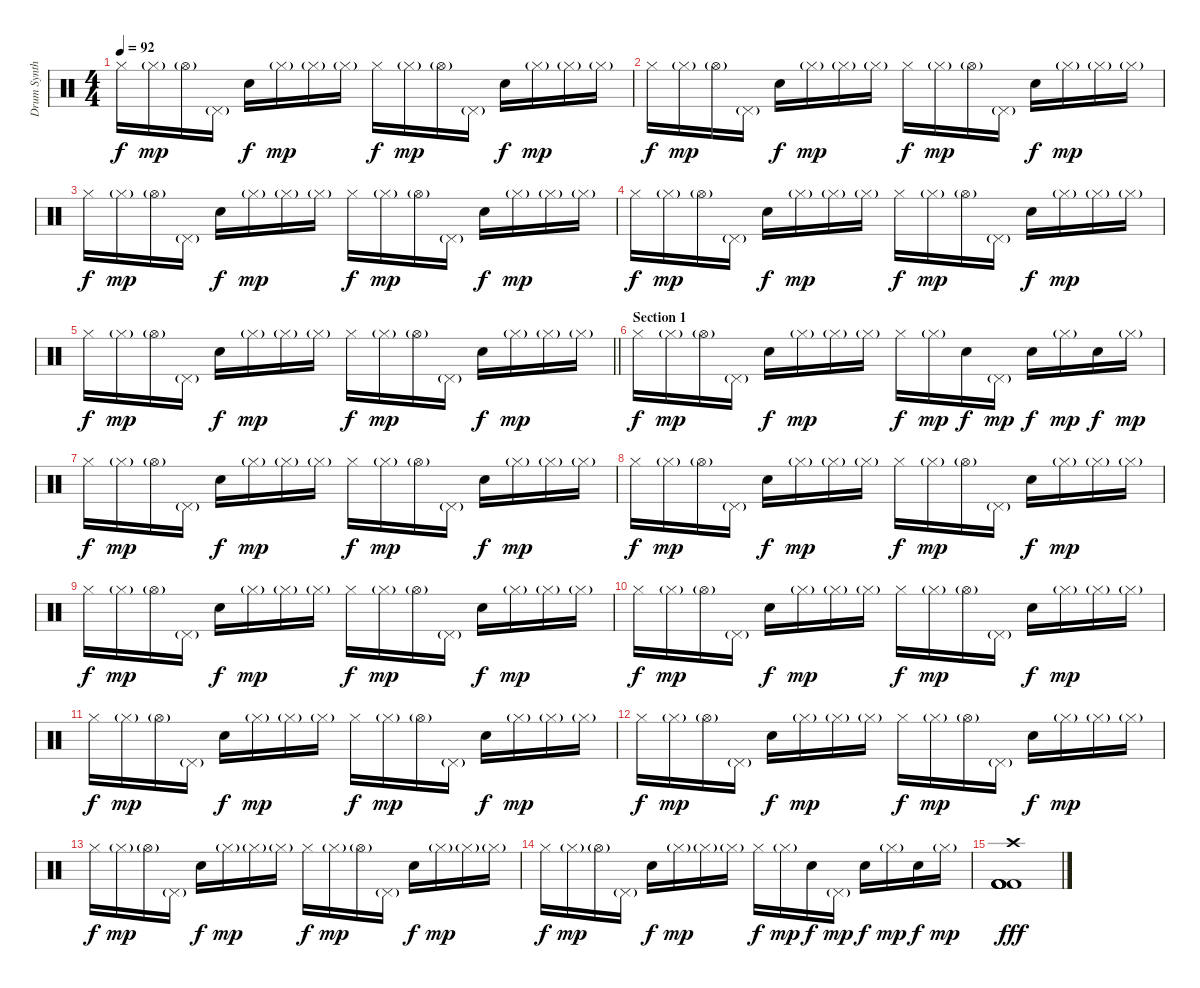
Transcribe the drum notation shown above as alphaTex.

\track ("Drum Synth" "Drum Synth") {instrument percussion}
\staff {score}
\articulation defaults
\ts (4 4)
\tempo 92
\clef neutral
\ks c "Hi-Hat (closed)".16{dy f} "Hi-Hat (closed)"{g}.16{dy mp} "Hi-Hat (open)"{g}.16 "Pedal Hi-Hat (hit)"{g}.16 "Electric Snare (hit)".16{dy f} "Hi-Hat (closed)"{g}.16{dy mp} "Hi-Hat (closed)"{g}.16 "Hi-Hat (closed)"{g}.16 "Hi-Hat (closed)".16{dy f} "Hi-Hat (closed)"{g}.16{dy mp} "Hi-Hat (open)"{g}.16 "Pedal Hi-Hat (hit)"{g}.16 "Electric Snare (hit)".16{dy f} "Hi-Hat (closed)"{g}.16{dy mp} "Hi-Hat (closed)"{g}.16 "Hi-Hat (closed)"{g}.16
|
"Hi-Hat (closed)".16{dy f} "Hi-Hat (closed)"{g}.16{dy mp} "Hi-Hat (open)"{g}.16 "Pedal Hi-Hat (hit)"{g}.16 "Electric Snare (hit)".16{dy f} "Hi-Hat (closed)"{g}.16{dy mp} "Hi-Hat (closed)"{g}.16 "Hi-Hat (closed)"{g}.16 "Hi-Hat (closed)".16{dy f} "Hi-Hat (closed)"{g}.16{dy mp} "Hi-Hat (open)"{g}.16 "Pedal Hi-Hat (hit)"{g}.16 "Electric Snare (hit)".16{dy f} "Hi-Hat (closed)"{g}.16{dy mp} "Hi-Hat (closed)"{g}.16 "Hi-Hat (closed)"{g}.16 |
"Hi-Hat (closed)".16{dy f} "Hi-Hat (closed)"{g}.16{dy mp} "Hi-Hat (open)"{g}.16 "Pedal Hi-Hat (hit)"{g}.16 "Electric Snare (hit)".16{dy f} "Hi-Hat (closed)"{g}.16{dy mp} "Hi-Hat (closed)"{g}.16 "Hi-Hat (closed)"{g}.16 "Hi-Hat (closed)".16{dy f} "Hi-Hat (closed)"{g}.16{dy mp} "Hi-Hat (open)"{g}.16 "Pedal Hi-Hat (hit)"{g}.16 "Electric Snare (hit)".16{dy f} "Hi-Hat (closed)"{g}.16{dy mp} "Hi-Hat (closed)"{g}.16 "Hi-Hat (closed)"{g}.16 |
"Hi-Hat (closed)".16{dy f} "Hi-Hat (closed)"{g}.16{dy mp} "Hi-Hat (open)"{g}.16 "Pedal Hi-Hat (hit)"{g}.16 "Electric Snare (hit)".16{dy f} "Hi-Hat (closed)"{g}.16{dy mp} "Hi-Hat (closed)"{g}.16 "Hi-Hat (closed)"{g}.16 "Hi-Hat (closed)".16{dy f} "Hi-Hat (closed)"{g}.16{dy mp} "Hi-Hat (open)"{g}.16 "Pedal Hi-Hat (hit)"{g}.16 "Electric Snare (hit)".16{dy f} "Hi-Hat (closed)"{g}.16{dy mp} "Hi-Hat (closed)"{g}.16 "Hi-Hat (closed)"{g}.16 |
\barLineRight lightlight "Hi-Hat (closed)".16{dy f} "Hi-Hat (closed)"{g}.16{dy mp} "Hi-Hat (open)"{g}.16 "Pedal Hi-Hat (hit)"{g}.16 "Electric Snare (hit)".16{dy f} "Hi-Hat (closed)"{g}.16{dy mp} "Hi-Hat (closed)"{g}.16 "Hi-Hat (closed)"{g}.16 "Hi-Hat (closed)".16{dy f} "Hi-Hat (closed)"{g}.16{dy mp} "Hi-Hat (open)"{g}.16 "Pedal Hi-Hat (hit)"{g}.16 "Electric Snare (hit)".16{dy f} "Hi-Hat (closed)"{g}.16{dy mp} "Hi-Hat (closed)"{g}.16 "Hi-Hat (closed)"{g}.16
|
\section ("" "Section 1")
"Hi-Hat (closed)".16{dy f} "Hi-Hat (closed)"{g}.16{dy mp} "Hi-Hat (open)"{g}.16 "Pedal Hi-Hat (hit)"{g}.16 "Electric Snare (hit)".16{dy f} "Hi-Hat (closed)"{g}.16{dy mp} "Hi-Hat (closed)"{g}.16 "Hi-Hat (closed)"{g}.16 "Hi-Hat (closed)".16{dy f} "Hi-Hat (closed)"{g}.16{dy mp} "Electric Snare (hit)".16{dy f} "Pedal Hi-Hat (hit)"{g}.16{dy mp} "Electric Snare (hit)".16{dy f} "Hi-Hat (closed)"{g}.16{dy mp} "Electric Snare (hit)".16{dy f} "Hi-Hat (closed)"{g}.16{dy mp} |
"Hi-Hat (closed)".16{dy f} "Hi-Hat (closed)"{g}.16{dy mp} "Hi-Hat (open)"{g}.16 "Pedal Hi-Hat (hit)"{g}.16 "Electric Snare (hit)".16{dy f} "Hi-Hat (closed)"{g}.16{dy mp} "Hi-Hat (closed)"{g}.16 "Hi-Hat (closed)"{g}.16 "Hi-Hat (closed)".16{dy f} "Hi-Hat (closed)"{g}.16{dy mp} "Hi-Hat (open)"{g}.16 "Pedal Hi-Hat (hit)"{g}.16 "Electric Snare (hit)".16{dy f} "Hi-Hat (closed)"{g}.16{dy mp} "Hi-Hat (closed)"{g}.16 "Hi-Hat (closed)"{g}.16 |
"Hi-Hat (closed)".16{dy f} "Hi-Hat (closed)"{g}.16{dy mp} "Hi-Hat (open)"{g}.16 "Pedal Hi-Hat (hit)"{g}.16 "Electric Snare (hit)".16{dy f} "Hi-Hat (closed)"{g}.16{dy mp} "Hi-Hat (closed)"{g}.16 "Hi-Hat (closed)"{g}.16 "Hi-Hat (closed)".16{dy f} "Hi-Hat (closed)"{g}.16{dy mp} "Hi-Hat (open)"{g}.16 "Pedal Hi-Hat (hit)"{g}.16 "Electric Snare (hit)".16{dy f} "Hi-Hat (closed)"{g}.16{dy mp} "Hi-Hat (closed)"{g}.16 "Hi-Hat (closed)"{g}.16 |
"Hi-Hat (closed)".16{dy f} "Hi-Hat (closed)"{g}.16{dy mp} "Hi-Hat (open)"{g}.16 "Pedal Hi-Hat (hit)"{g}.16 "Electric Snare (hit)".16{dy f} "Hi-Hat (closed)"{g}.16{dy mp} "Hi-Hat (closed)"{g}.16 "Hi-Hat (closed)"{g}.16 "Hi-Hat (closed)".16{dy f} "Hi-Hat (closed)"{g}.16{dy mp} "Hi-Hat (open)"{g}.16 "Pedal Hi-Hat (hit)"{g}.16 "Electric Snare (hit)".16{dy f} "Hi-Hat (closed)"{g}.16{dy mp} "Hi-Hat (closed)"{g}.16 "Hi-Hat (closed)"{g}.16 |
"Hi-Hat (closed)".16{dy f} "Hi-Hat (closed)"{g}.16{dy mp} "Hi-Hat (open)"{g}.16 "Pedal Hi-Hat (hit)"{g}.16 "Electric Snare (hit)".16{dy f} "Hi-Hat (closed)"{g}.16{dy mp} "Hi-Hat (closed)"{g}.16 "Hi-Hat (closed)"{g}.16 "Hi-Hat (closed)".16{dy f} "Hi-Hat (closed)"{g}.16{dy mp} "Hi-Hat (open)"{g}.16 "Pedal Hi-Hat (hit)"{g}.16 "Electric Snare (hit)".16{dy f} "Hi-Hat (closed)"{g}.16{dy mp} "Hi-Hat (closed)"{g}.16 "Hi-Hat (closed)"{g}.16 |
"Hi-Hat (closed)".16{dy f} "Hi-Hat (closed)"{g}.16{dy mp} "Hi-Hat (open)"{g}.16 "Pedal Hi-Hat (hit)"{g}.16 "Electric Snare (hit)".16{dy f} "Hi-Hat (closed)"{g}.16{dy mp} "Hi-Hat (closed)"{g}.16 "Hi-Hat (closed)"{g}.16 "Hi-Hat (closed)".16{dy f} "Hi-Hat (closed)"{g}.16{dy mp} "Hi-Hat (open)"{g}.16 "Pedal Hi-Hat (hit)"{g}.16 "Electric Snare (hit)".16{dy f} "Hi-Hat (closed)"{g}.16{dy mp} "Hi-Hat (closed)"{g}.16 "Hi-Hat (closed)"{g}.16 |
"Hi-Hat (closed)".16{dy f} "Hi-Hat (closed)"{g}.16{dy mp} "Hi-Hat (open)"{g}.16 "Pedal Hi-Hat (hit)"{g}.16 "Electric Snare (hit)".16{dy f} "Hi-Hat (closed)"{g}.16{dy mp} "Hi-Hat (closed)"{g}.16 "Hi-Hat (closed)"{g}.16 "Hi-Hat (closed)".16{dy f} "Hi-Hat (closed)"{g}.16{dy mp} "Hi-Hat (open)"{g}.16 "Pedal Hi-Hat (hit)"{g}.16 "Electric Snare (hit)".16{dy f} "Hi-Hat (closed)"{g}.16{dy mp} "Hi-Hat (closed)"{g}.16 "Hi-Hat (closed)"{g}.16 |
"Hi-Hat (closed)".16{dy f} "Hi-Hat (closed)"{g}.16{dy mp} "Hi-Hat (open)"{g}.16 "Pedal Hi-Hat (hit)"{g}.16 "Electric Snare (hit)".16{dy f} "Hi-Hat (closed)"{g}.16{dy mp} "Hi-Hat (closed)"{g}.16 "Hi-Hat (closed)"{g}.16 "Hi-Hat (closed)".16{dy f} "Hi-Hat (closed)"{g}.16{dy mp} "Hi-Hat (open)"{g}.16 "Pedal Hi-Hat (hit)"{g}.16 "Electric Snare (hit)".16{dy f} "Hi-Hat (closed)"{g}.16{dy mp} "Hi-Hat (closed)"{g}.16 "Hi-Hat (closed)"{g}.16 |
"Hi-Hat (closed)".16{dy f} "Hi-Hat (closed)"{g}.16{dy mp} "Hi-Hat (open)"{g}.16 "Pedal Hi-Hat (hit)"{g}.16 "Electric Snare (hit)".16{dy f} "Hi-Hat (closed)"{g}.16{dy mp} "Hi-Hat (closed)"{g}.16 "Hi-Hat (closed)"{g}.16 "Hi-Hat (closed)".16{dy f} "Hi-Hat (closed)"{g}.16{dy mp} "Electric Snare (hit)".16{dy f} "Pedal Hi-Hat (hit)"{g}.16{dy mp} "Electric Snare (hit)".16{dy f} "Hi-Hat (closed)"{g}.16{dy mp} "Electric Snare (hit)".16{dy f} "Hi-Hat (closed)"{g}.16{dy mp} |
("Crash high (hit)" "Kick (hit) 2" "Kick (hit) 2" "Kick (hit) 2" "Kick (hit) 2" "Kick (hit) 2").1{dy fff}
